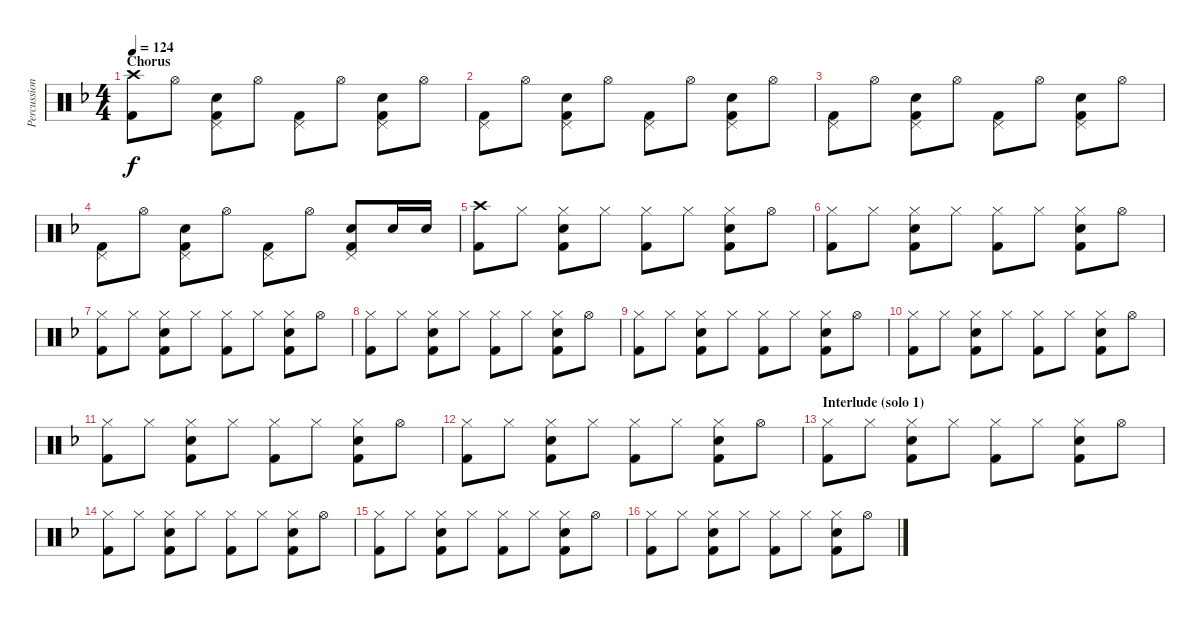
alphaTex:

\track ("Percussion" "Percussion") {instrument percussion}
\staff {score}
\articulation defaults
\ts (4 4)
\section ("" "Chorus")
\tempo 124
\clef neutral
\ks f
("Crash high (hit)" "Kick (hit) 2").8{dy f} "Hi-Hat (open)".8 ("Pedal Hi-Hat (hit)" "Electric Snare (hit)" "Kick (hit) 2").8 "Hi-Hat (open)".8 ("Pedal Hi-Hat (hit)" "Kick (hit) 2").8 "Hi-Hat (open)".8 ("Pedal Hi-Hat (hit)" "Electric Snare (hit)" "Kick (hit) 2").8 "Hi-Hat (open)".8 |
("Pedal Hi-Hat (hit)" "Kick (hit) 2").8 "Hi-Hat (open)".8 ("Pedal Hi-Hat (hit)" "Electric Snare (hit)" "Kick (hit) 2").8 "Hi-Hat (open)".8 ("Pedal Hi-Hat (hit)" "Kick (hit) 2").8 "Hi-Hat (open)".8 ("Pedal Hi-Hat (hit)" "Electric Snare (hit)" "Kick (hit) 2").8 "Hi-Hat (open)".8 |
("Pedal Hi-Hat (hit)" "Kick (hit) 2").8 "Hi-Hat (open)".8 ("Pedal Hi-Hat (hit)" "Electric Snare (hit)" "Kick (hit) 2").8 "Hi-Hat (open)".8 ("Pedal Hi-Hat (hit)" "Kick (hit) 2").8 "Hi-Hat (open)".8 ("Pedal Hi-Hat (hit)" "Electric Snare (hit)" "Kick (hit) 2").8 "Hi-Hat (open)".8 |
("Pedal Hi-Hat (hit)" "Kick (hit) 2").8 "Hi-Hat (open)".8 ("Pedal Hi-Hat (hit)" "Electric Snare (hit)" "Kick (hit) 2").8 "Hi-Hat (open)".8 ("Pedal Hi-Hat (hit)" "Kick (hit) 2").8 "Hi-Hat (open)".8 ("Pedal Hi-Hat (hit)" "Electric Snare (hit)" "Kick (hit) 2").8 "Electric Snare (hit)".16 "Electric Snare (hit)".16 |
("Crash high (hit)" "Kick (hit) 2").8 "Hi-Hat (closed)".8 ("Hi-Hat (closed)" "Electric Snare (hit)" "Kick (hit) 2").8 "Hi-Hat (closed)".8 ("Hi-Hat (closed)" "Kick (hit) 2").8 "Hi-Hat (closed)".8 ("Hi-Hat (closed)" "Electric Snare (hit)" "Kick (hit) 2").8 "Hi-Hat (open)".8 |
("Hi-Hat (closed)" "Kick (hit) 2").8 "Hi-Hat (closed)".8 ("Hi-Hat (closed)" "Electric Snare (hit)" "Kick (hit) 2").8 "Hi-Hat (closed)".8 ("Hi-Hat (closed)" "Kick (hit) 2").8 "Hi-Hat (closed)".8 ("Hi-Hat (closed)" "Electric Snare (hit)" "Kick (hit) 2").8 "Hi-Hat (open)".8 |
("Hi-Hat (closed)" "Kick (hit) 2").8 "Hi-Hat (closed)".8 ("Hi-Hat (closed)" "Electric Snare (hit)" "Kick (hit) 2").8 "Hi-Hat (closed)".8 ("Hi-Hat (closed)" "Kick (hit) 2").8 "Hi-Hat (closed)".8 ("Hi-Hat (closed)" "Electric Snare (hit)" "Kick (hit) 2").8 "Hi-Hat (open)".8 |
("Hi-Hat (closed)" "Kick (hit) 2").8 "Hi-Hat (closed)".8 ("Hi-Hat (closed)" "Electric Snare (hit)" "Kick (hit) 2").8 "Hi-Hat (closed)".8 ("Hi-Hat (closed)" "Kick (hit) 2").8 "Hi-Hat (closed)".8 ("Hi-Hat (closed)" "Electric Snare (hit)" "Kick (hit) 2").8 "Hi-Hat (open)".8 |
("Hi-Hat (closed)" "Kick (hit) 2").8 "Hi-Hat (closed)".8 ("Hi-Hat (closed)" "Electric Snare (hit)" "Kick (hit) 2").8 "Hi-Hat (closed)".8 ("Hi-Hat (closed)" "Kick (hit) 2").8 "Hi-Hat (closed)".8 ("Hi-Hat (closed)" "Electric Snare (hit)" "Kick (hit) 2").8 "Hi-Hat (open)".8 |
("Hi-Hat (closed)" "Kick (hit) 2").8 "Hi-Hat (closed)".8 ("Hi-Hat (closed)" "Electric Snare (hit)" "Kick (hit) 2").8 "Hi-Hat (closed)".8 ("Hi-Hat (closed)" "Kick (hit) 2").8 "Hi-Hat (closed)".8 ("Hi-Hat (closed)" "Electric Snare (hit)" "Kick (hit) 2").8 "Hi-Hat (open)".8 |
("Hi-Hat (closed)" "Kick (hit) 2").8 "Hi-Hat (closed)".8 ("Hi-Hat (closed)" "Electric Snare (hit)" "Kick (hit) 2").8 "Hi-Hat (closed)".8 ("Hi-Hat (closed)" "Kick (hit) 2").8 "Hi-Hat (closed)".8 ("Hi-Hat (closed)" "Electric Snare (hit)" "Kick (hit) 2").8 "Hi-Hat (open)".8 |
("Hi-Hat (closed)" "Kick (hit) 2").8 "Hi-Hat (closed)".8 ("Hi-Hat (closed)" "Electric Snare (hit)" "Kick (hit) 2").8 "Hi-Hat (closed)".8 ("Hi-Hat (closed)" "Kick (hit) 2").8 "Hi-Hat (closed)".8 ("Hi-Hat (closed)" "Electric Snare (hit)" "Kick (hit) 2").8 "Hi-Hat (open)".8 |
\section ("" "Interlude (solo 1)")
("Hi-Hat (closed)" "Kick (hit) 2").8 "Hi-Hat (closed)".8 ("Hi-Hat (closed)" "Electric Snare (hit)" "Kick (hit) 2").8 "Hi-Hat (closed)".8 ("Hi-Hat (closed)" "Kick (hit) 2").8 "Hi-Hat (closed)".8 ("Hi-Hat (closed)" "Electric Snare (hit)" "Kick (hit) 2").8 "Hi-Hat (open)".8 |
("Hi-Hat (closed)" "Kick (hit) 2").8 "Hi-Hat (closed)".8 ("Hi-Hat (closed)" "Electric Snare (hit)" "Kick (hit) 2").8 "Hi-Hat (closed)".8 ("Hi-Hat (closed)" "Kick (hit) 2").8 "Hi-Hat (closed)".8 ("Hi-Hat (closed)" "Electric Snare (hit)" "Kick (hit) 2").8 "Hi-Hat (open)".8 |
("Hi-Hat (closed)" "Kick (hit) 2").8 "Hi-Hat (closed)".8 ("Hi-Hat (closed)" "Electric Snare (hit)" "Kick (hit) 2").8 "Hi-Hat (closed)".8 ("Hi-Hat (closed)" "Kick (hit) 2").8 "Hi-Hat (closed)".8 ("Hi-Hat (closed)" "Electric Snare (hit)" "Kick (hit) 2").8 "Hi-Hat (open)".8 |
("Hi-Hat (closed)" "Kick (hit) 2").8 "Hi-Hat (closed)".8 ("Hi-Hat (closed)" "Electric Snare (hit)" "Kick (hit) 2").8 "Hi-Hat (closed)".8 ("Hi-Hat (closed)" "Kick (hit) 2").8 "Hi-Hat (closed)".8 ("Hi-Hat (closed)" "Electric Snare (hit)" "Kick (hit) 2").8 "Hi-Hat (open)".8
